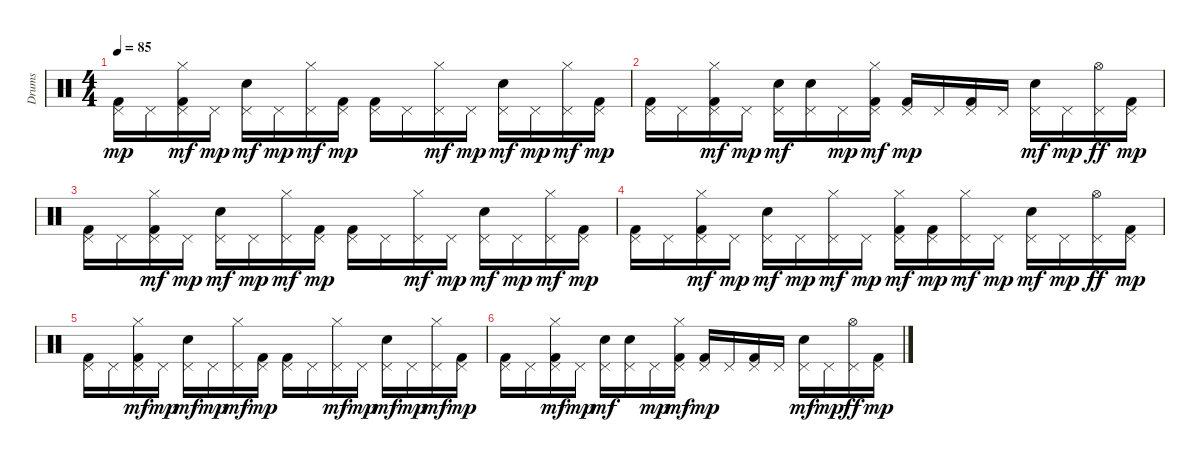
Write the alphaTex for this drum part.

\track ("Drums" "Drums") {instrument percussion}
\staff {score}
\articulation defaults
\ts (4 4)
\tempo 85
\clef neutral
\ks c
("Pedal Hi-Hat (hit)" "Kick (hit) 2").16{dy mp} "Pedal Hi-Hat (hit)".16 ("Pedal Hi-Hat (hit)" "Hi-Hat (closed)" "Kick (hit) 2").16{dy mf} "Pedal Hi-Hat (hit)".16{dy mp} ("Pedal Hi-Hat (hit)" "Snare (hit) 2").16{dy mf} "Pedal Hi-Hat (hit)".16{dy mp} ("Pedal Hi-Hat (hit)" "Hi-Hat (closed)").16{dy mf} ("Pedal Hi-Hat (hit)" "Kick (hit) 2").16{dy mp} ("Pedal Hi-Hat (hit)" "Kick (hit) 2").16 "Pedal Hi-Hat (hit)".16 ("Pedal Hi-Hat (hit)" "Hi-Hat (closed)").16{dy mf} "Pedal Hi-Hat (hit)".16{dy mp} ("Pedal Hi-Hat (hit)" "Snare (hit) 2").16{dy mf} "Pedal Hi-Hat (hit)".16{dy mp} ("Pedal Hi-Hat (hit)" "Hi-Hat (closed)").16{dy mf} ("Pedal Hi-Hat (hit)" "Kick (hit) 2").16{dy mp} |
("Pedal Hi-Hat (hit)" "Kick (hit) 2").16 "Pedal Hi-Hat (hit)".16 ("Pedal Hi-Hat (hit)" "Hi-Hat (closed)" "Kick (hit) 2").16{dy mf} "Pedal Hi-Hat (hit)".16{dy mp} ("Pedal Hi-Hat (hit)" "Snare (hit) 2").16{dy mf} ("Pedal Hi-Hat (hit)" "Snare (hit) 2").16 "Pedal Hi-Hat (hit)".16{dy mp} ("Pedal Hi-Hat (hit)" "Hi-Hat (closed)" "Kick (hit) 2").16{dy mf} ("Pedal Hi-Hat (hit)" "Kick (hit) 2").16{dy mp} "Pedal Hi-Hat (hit)".16 ("Pedal Hi-Hat (hit)" "Kick (hit) 2").16 "Pedal Hi-Hat (hit)".16 ("Pedal Hi-Hat (hit)" "Snare (hit) 2").16{dy mf} "Pedal Hi-Hat (hit)".16{dy mp} ("Pedal Hi-Hat (hit)" "Hi-Hat (open)").16{dy ff} ("Pedal Hi-Hat (hit)" "Kick (hit) 2").16{dy mp} |
("Pedal Hi-Hat (hit)" "Kick (hit) 2").16 "Pedal Hi-Hat (hit)".16 ("Pedal Hi-Hat (hit)" "Hi-Hat (closed)" "Kick (hit) 2").16{dy mf} "Pedal Hi-Hat (hit)".16{dy mp} ("Pedal Hi-Hat (hit)" "Snare (hit) 2").16{dy mf} "Pedal Hi-Hat (hit)".16{dy mp} ("Pedal Hi-Hat (hit)" "Hi-Hat (closed)").16{dy mf} ("Pedal Hi-Hat (hit)" "Kick (hit) 2").16{dy mp} ("Pedal Hi-Hat (hit)" "Kick (hit) 2").16 "Pedal Hi-Hat (hit)".16 ("Pedal Hi-Hat (hit)" "Hi-Hat (closed)").16{dy mf} "Pedal Hi-Hat (hit)".16{dy mp} ("Pedal Hi-Hat (hit)" "Snare (hit) 2").16{dy mf} "Pedal Hi-Hat (hit)".16{dy mp} ("Pedal Hi-Hat (hit)" "Hi-Hat (closed)").16{dy mf} ("Pedal Hi-Hat (hit)" "Kick (hit) 2").16{dy mp} |
("Pedal Hi-Hat (hit)" "Kick (hit) 2").16 "Pedal Hi-Hat (hit)".16 ("Pedal Hi-Hat (hit)" "Hi-Hat (closed)" "Kick (hit) 2").16{dy mf} "Pedal Hi-Hat (hit)".16{dy mp} ("Pedal Hi-Hat (hit)" "Snare (hit) 2").16{dy mf} "Pedal Hi-Hat (hit)".16{dy mp} ("Pedal Hi-Hat (hit)" "Hi-Hat (closed)").16{dy mf} "Pedal Hi-Hat (hit)".16{dy mp} ("Pedal Hi-Hat (hit)" "Hi-Hat (closed)" "Kick (hit) 2").16{dy mf} ("Pedal Hi-Hat (hit)" "Kick (hit) 2").16{dy mp} ("Pedal Hi-Hat (hit)" "Hi-Hat (closed)").16{dy mf} "Pedal Hi-Hat (hit)".16{dy mp} ("Pedal Hi-Hat (hit)" "Snare (hit) 2").16{dy mf} "Pedal Hi-Hat (hit)".16{dy mp} ("Pedal Hi-Hat (hit)" "Hi-Hat (open)").16{dy ff} ("Pedal Hi-Hat (hit)" "Kick (hit) 2").16{dy mp} |
("Pedal Hi-Hat (hit)" "Kick (hit) 2").16 "Pedal Hi-Hat (hit)".16 ("Pedal Hi-Hat (hit)" "Hi-Hat (closed)" "Kick (hit) 2").16{dy mf} "Pedal Hi-Hat (hit)".16{dy mp} ("Pedal Hi-Hat (hit)" "Snare (hit) 2").16{dy mf} "Pedal Hi-Hat (hit)".16{dy mp} ("Pedal Hi-Hat (hit)" "Hi-Hat (closed)").16{dy mf} ("Pedal Hi-Hat (hit)" "Kick (hit) 2").16{dy mp} ("Pedal Hi-Hat (hit)" "Kick (hit) 2").16 "Pedal Hi-Hat (hit)".16 ("Pedal Hi-Hat (hit)" "Hi-Hat (closed)").16{dy mf} "Pedal Hi-Hat (hit)".16{dy mp} ("Pedal Hi-Hat (hit)" "Snare (hit) 2").16{dy mf} "Pedal Hi-Hat (hit)".16{dy mp} ("Pedal Hi-Hat (hit)" "Hi-Hat (closed)").16{dy mf} ("Pedal Hi-Hat (hit)" "Kick (hit) 2").16{dy mp} |
("Pedal Hi-Hat (hit)" "Kick (hit) 2").16 "Pedal Hi-Hat (hit)".16 ("Pedal Hi-Hat (hit)" "Hi-Hat (closed)" "Kick (hit) 2").16{dy mf} "Pedal Hi-Hat (hit)".16{dy mp} ("Pedal Hi-Hat (hit)" "Snare (hit) 2").16{dy mf} ("Pedal Hi-Hat (hit)" "Snare (hit) 2").16 "Pedal Hi-Hat (hit)".16{dy mp} ("Pedal Hi-Hat (hit)" "Hi-Hat (closed)" "Kick (hit) 2").16{dy mf} ("Pedal Hi-Hat (hit)" "Kick (hit) 2").16{dy mp} "Pedal Hi-Hat (hit)".16 ("Pedal Hi-Hat (hit)" "Kick (hit) 2").16 "Pedal Hi-Hat (hit)".16 ("Pedal Hi-Hat (hit)" "Snare (hit) 2").16{dy mf} "Pedal Hi-Hat (hit)".16{dy mp} ("Pedal Hi-Hat (hit)" "Hi-Hat (open)").16{dy ff} ("Pedal Hi-Hat (hit)" "Kick (hit) 2").16{dy mp}
